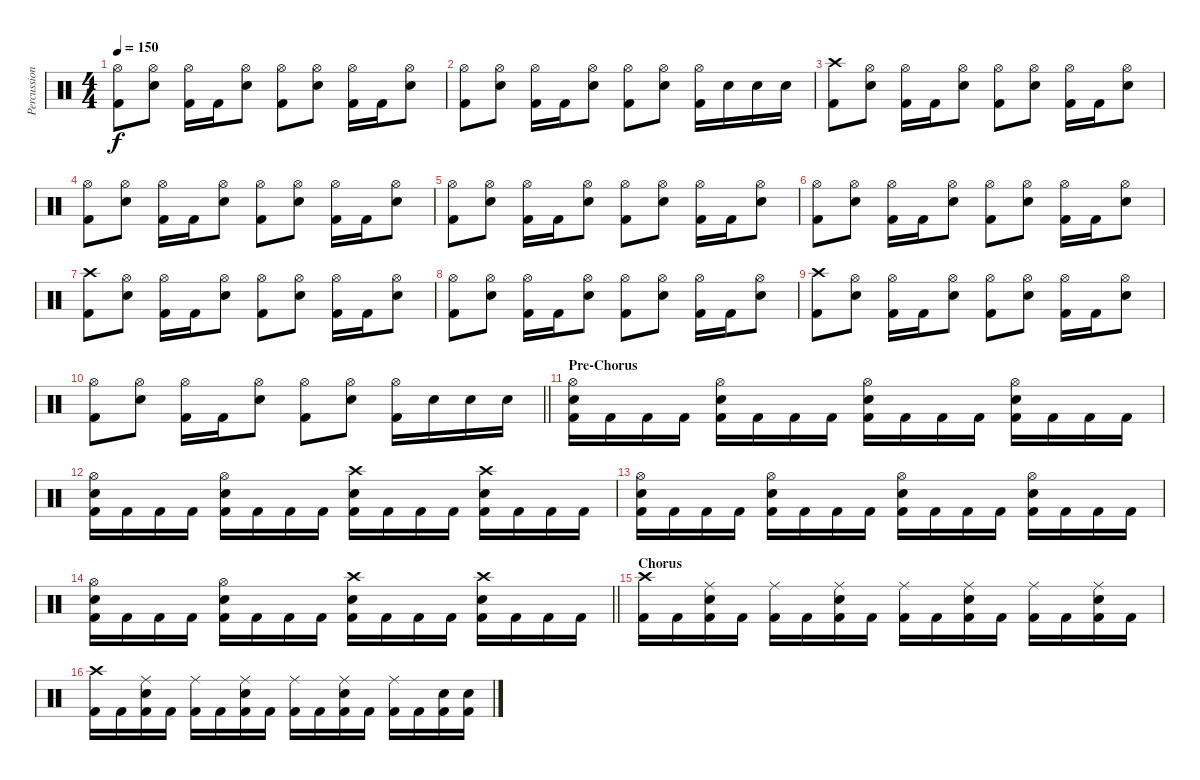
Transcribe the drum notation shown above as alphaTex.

\track ("Percussion" "Percussion") {instrument percussion}
\staff {score}
\articulation defaults
\ts (4 4)
\tempo 150
\clef neutral
\ks c
("Hi-Hat (open)" "Kick (hit) 2").8{dy f} ("Hi-Hat (open)" "Electric Snare (hit)").8 ("Hi-Hat (open)" "Kick (hit) 2").16 "Kick (hit) 2".16 ("Hi-Hat (open)" "Electric Snare (hit)").8 ("Hi-Hat (open)" "Kick (hit) 2").8 ("Hi-Hat (open)" "Electric Snare (hit)").8 ("Hi-Hat (open)" "Kick (hit) 2").16 "Kick (hit) 2".16 ("Hi-Hat (open)" "Electric Snare (hit)").8 |
("Hi-Hat (open)" "Kick (hit) 2").8 ("Hi-Hat (open)" "Electric Snare (hit)").8 ("Hi-Hat (open)" "Kick (hit) 2").16 "Kick (hit) 2".16 ("Hi-Hat (open)" "Electric Snare (hit)").8 ("Hi-Hat (open)" "Kick (hit) 2").8 ("Hi-Hat (open)" "Electric Snare (hit)").8 ("Hi-Hat (open)" "Kick (hit) 2").16 "Electric Snare (hit)".16 "Electric Snare (hit)".16 "Electric Snare (hit)".16 |
("Crash high (hit)" "Kick (hit) 2").8 ("Hi-Hat (open)" "Electric Snare (hit)").8 ("Hi-Hat (open)" "Kick (hit) 2").16 "Kick (hit) 2".16 ("Hi-Hat (open)" "Electric Snare (hit)").8 ("Hi-Hat (open)" "Kick (hit) 2").8 ("Hi-Hat (open)" "Electric Snare (hit)").8 ("Hi-Hat (open)" "Kick (hit) 2").16 "Kick (hit) 2".16 ("Hi-Hat (open)" "Electric Snare (hit)").8 |
("Hi-Hat (open)" "Kick (hit) 2").8 ("Hi-Hat (open)" "Electric Snare (hit)").8 ("Hi-Hat (open)" "Kick (hit) 2").16 "Kick (hit) 2".16 ("Hi-Hat (open)" "Electric Snare (hit)").8 ("Hi-Hat (open)" "Kick (hit) 2").8 ("Hi-Hat (open)" "Electric Snare (hit)").8 ("Hi-Hat (open)" "Kick (hit) 2").16 "Kick (hit) 2".16 ("Hi-Hat (open)" "Electric Snare (hit)").8 |
("Hi-Hat (open)" "Kick (hit) 2").8 ("Hi-Hat (open)" "Electric Snare (hit)").8 ("Hi-Hat (open)" "Kick (hit) 2").16 "Kick (hit) 2".16 ("Hi-Hat (open)" "Electric Snare (hit)").8 ("Hi-Hat (open)" "Kick (hit) 2").8 ("Hi-Hat (open)" "Electric Snare (hit)").8 ("Hi-Hat (open)" "Kick (hit) 2").16 "Kick (hit) 2".16 ("Hi-Hat (open)" "Electric Snare (hit)").8 |
("Hi-Hat (open)" "Kick (hit) 2").8 ("Hi-Hat (open)" "Electric Snare (hit)").8 ("Hi-Hat (open)" "Kick (hit) 2").16 "Kick (hit) 2".16 ("Hi-Hat (open)" "Electric Snare (hit)").8 ("Hi-Hat (open)" "Kick (hit) 2").8 ("Hi-Hat (open)" "Electric Snare (hit)").8 ("Hi-Hat (open)" "Kick (hit) 2").16 "Kick (hit) 2".16 ("Hi-Hat (open)" "Electric Snare (hit)").8 |
("Crash high (hit)" "Kick (hit) 2").8 ("Hi-Hat (open)" "Electric Snare (hit)").8 ("Hi-Hat (open)" "Kick (hit) 2").16 "Kick (hit) 2".16 ("Hi-Hat (open)" "Electric Snare (hit)").8 ("Hi-Hat (open)" "Kick (hit) 2").8 ("Hi-Hat (open)" "Electric Snare (hit)").8 ("Hi-Hat (open)" "Kick (hit) 2").16 "Kick (hit) 2".16 ("Hi-Hat (open)" "Electric Snare (hit)").8 |
("Hi-Hat (open)" "Kick (hit) 2").8 ("Hi-Hat (open)" "Electric Snare (hit)").8 ("Hi-Hat (open)" "Kick (hit) 2").16 "Kick (hit) 2".16 ("Hi-Hat (open)" "Electric Snare (hit)").8 ("Hi-Hat (open)" "Kick (hit) 2").8 ("Hi-Hat (open)" "Electric Snare (hit)").8 ("Hi-Hat (open)" "Kick (hit) 2").16 "Kick (hit) 2".16 ("Hi-Hat (open)" "Electric Snare (hit)").8 |
("Crash high (hit)" "Kick (hit) 2").8 ("Hi-Hat (open)" "Electric Snare (hit)").8 ("Hi-Hat (open)" "Kick (hit) 2").16 "Kick (hit) 2".16 ("Hi-Hat (open)" "Electric Snare (hit)").8 ("Hi-Hat (open)" "Kick (hit) 2").8 ("Hi-Hat (open)" "Electric Snare (hit)").8 ("Hi-Hat (open)" "Kick (hit) 2").16 "Kick (hit) 2".16 ("Hi-Hat (open)" "Electric Snare (hit)").8 |
\barLineRight lightlight
("Hi-Hat (open)" "Kick (hit) 2").8 ("Hi-Hat (open)" "Electric Snare (hit)").8 ("Hi-Hat (open)" "Kick (hit) 2").16 "Kick (hit) 2".16 ("Hi-Hat (open)" "Electric Snare (hit)").8 ("Hi-Hat (open)" "Kick (hit) 2").8 ("Hi-Hat (open)" "Electric Snare (hit)").8 ("Hi-Hat (open)" "Kick (hit) 2").16 "Electric Snare (hit)".16 "Electric Snare (hit)".16 "Electric Snare (hit)".16 |
\section ("" "Pre-Chorus")
("Hi-Hat (open)" "Electric Snare (hit)" "Kick (hit) 2").16 "Kick (hit) 2".16 "Kick (hit) 2".16 "Kick (hit) 2".16 ("Hi-Hat (open)" "Electric Snare (hit)" "Kick (hit) 2").16 "Kick (hit) 2".16 "Kick (hit) 2".16 "Kick (hit) 2".16 ("Hi-Hat (open)" "Electric Snare (hit)" "Kick (hit) 2").16 "Kick (hit) 2".16 "Kick (hit) 2".16 "Kick (hit) 2".16 ("Hi-Hat (open)" "Electric Snare (hit)" "Kick (hit) 2").16 "Kick (hit) 2".16 "Kick (hit) 2".16 "Kick (hit) 2".16 |
("Hi-Hat (open)" "Electric Snare (hit)" "Kick (hit) 2").16 "Kick (hit) 2".16 "Kick (hit) 2".16 "Kick (hit) 2".16 ("Hi-Hat (open)" "Electric Snare (hit)" "Kick (hit) 2").16 "Kick (hit) 2".16 "Kick (hit) 2".16 "Kick (hit) 2".16 ("Crash high (hit)" "Electric Snare (hit)" "Kick (hit) 2").16 "Kick (hit) 2".16 "Kick (hit) 2".16 "Kick (hit) 2".16 ("Crash high (hit)" "Electric Snare (hit)" "Kick (hit) 2").16 "Kick (hit) 2".16 "Kick (hit) 2".16 "Kick (hit) 2".16 |
("Hi-Hat (open)" "Electric Snare (hit)" "Kick (hit) 2").16 "Kick (hit) 2".16 "Kick (hit) 2".16 "Kick (hit) 2".16 ("Hi-Hat (open)" "Electric Snare (hit)" "Kick (hit) 2").16 "Kick (hit) 2".16 "Kick (hit) 2".16 "Kick (hit) 2".16 ("Hi-Hat (open)" "Electric Snare (hit)" "Kick (hit) 2").16 "Kick (hit) 2".16 "Kick (hit) 2".16 "Kick (hit) 2".16 ("Hi-Hat (open)" "Electric Snare (hit)" "Kick (hit) 2").16 "Kick (hit) 2".16 "Kick (hit) 2".16 "Kick (hit) 2".16 |
\barLineRight lightlight
("Hi-Hat (open)" "Electric Snare (hit)" "Kick (hit) 2").16 "Kick (hit) 2".16 "Kick (hit) 2".16 "Kick (hit) 2".16 ("Hi-Hat (open)" "Electric Snare (hit)" "Kick (hit) 2").16 "Kick (hit) 2".16 "Kick (hit) 2".16 "Kick (hit) 2".16 ("Crash high (hit)" "Electric Snare (hit)" "Kick (hit) 2").16 "Kick (hit) 2".16 "Kick (hit) 2".16 "Kick (hit) 2".16 ("Crash high (hit)" "Electric Snare (hit)" "Kick (hit) 2").16 "Kick (hit) 2".16 "Kick (hit) 2".16 "Kick (hit) 2".16 |
\section ("" "Chorus")
("Crash high (hit)" "Kick (hit) 2").16 "Kick (hit) 2".16 ("Ride (middle)" "Electric Snare (hit)" "Kick (hit) 2").16 "Kick (hit) 2".16 ("Ride (middle)" "Kick (hit) 2").16 "Kick (hit) 2".16 ("Ride (middle)" "Electric Snare (hit)" "Kick (hit) 2").16 "Kick (hit) 2".16 ("Ride (middle)" "Kick (hit) 2").16 "Kick (hit) 2".16 ("Ride (middle)" "Electric Snare (hit)" "Kick (hit) 2").16 "Kick (hit) 2".16 ("Ride (middle)" "Kick (hit) 2").16 "Kick (hit) 2".16 ("Ride (middle)" "Electric Snare (hit)" "Kick (hit) 2").16 "Kick (hit) 2".16 |
("Crash high (hit)" "Kick (hit) 2").16 "Kick (hit) 2".16 ("Ride (middle)" "Electric Snare (hit)" "Kick (hit) 2").16 "Kick (hit) 2".16 ("Ride (middle)" "Kick (hit) 2").16 "Kick (hit) 2".16 ("Ride (middle)" "Electric Snare (hit)" "Kick (hit) 2").16 "Kick (hit) 2".16 ("Ride (middle)" "Kick (hit) 2").16 "Kick (hit) 2".16 ("Ride (middle)" "Electric Snare (hit)" "Kick (hit) 2").16 "Kick (hit) 2".16 ("Ride (middle)" "Kick (hit) 2").16 "Kick (hit) 2".16 ("Electric Snare (hit)" "Kick (hit) 2").16 ("Electric Snare (hit)" "Kick (hit) 2").16
